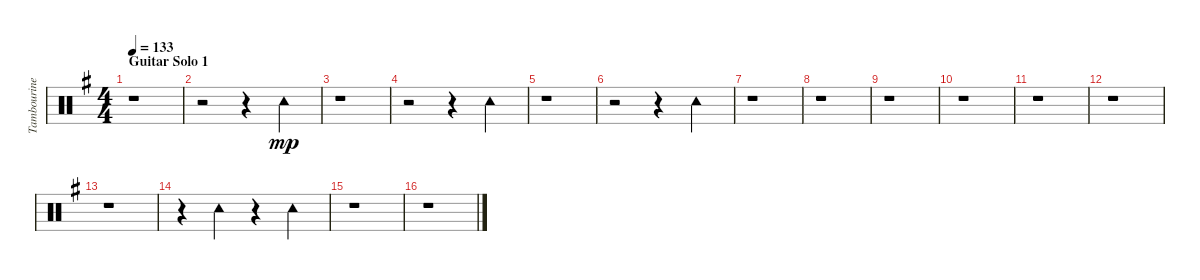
\track ("Tambourine/Claps" "Tambourine") {instrument percussion}
\staff {score}
\articulation defaults
\ts (4 4)
\section ("" "Guitar Solo 1")
\tempo 133
\clef neutral
\ks g
r.1{dy mp} |
r.2 r.4 "Tambourine (hit)".4 |
r.1 |
r.2 r.4 "Tambourine (hit)".4 |
r.1 |
r.2 r.4 "Tambourine (hit)".4 |
r.1 |
r.1 |
r.1 |
r.1 |
r.1 |
r.1 |
r.1 |
r.4 "Tambourine (hit)".4 r.4 "Tambourine (hit)".4 |
r.1 |
r.1
